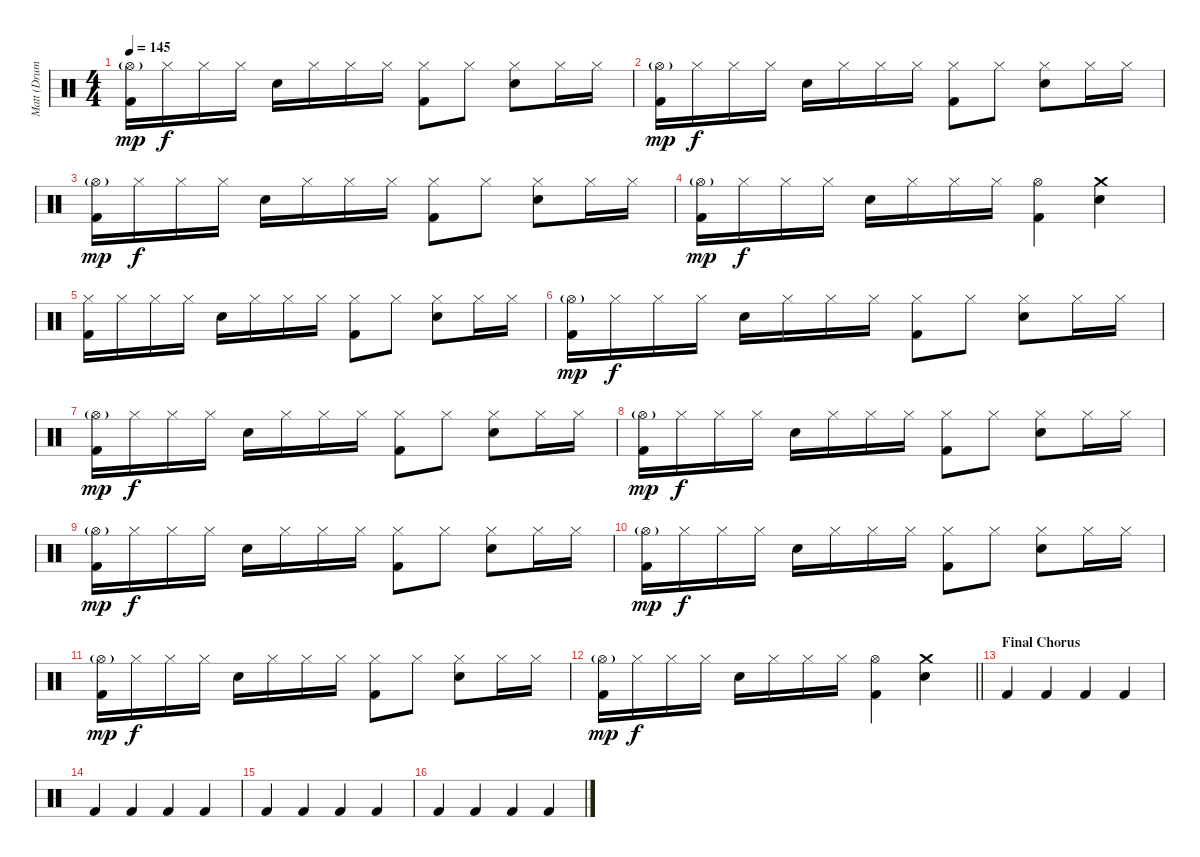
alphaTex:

\track ("Matt (Drums)" "Matt (Drum") {instrument percussion}
\staff {score}
\articulation defaults
\ts (4 4)
\tempo 145
\clef neutral
\ks c
("Hi-Hat (open)"{g} "Kick (hit) 2").16{dy mp} "Hi-Hat (closed)".16{dy f} "Hi-Hat (closed)".16 "Hi-Hat (closed)".16 "Electric Snare (hit)".16 "Hi-Hat (closed)".16 "Hi-Hat (closed)".16 "Hi-Hat (closed)".16 ("Hi-Hat (closed)" "Kick (hit) 2").8 "Hi-Hat (closed)".8 ("Hi-Hat (closed)" "Electric Snare (hit)").8 "Hi-Hat (closed)".16 "Hi-Hat (closed)".16 |
("Hi-Hat (open)"{g} "Kick (hit) 2").16{dy mp} "Hi-Hat (closed)".16{dy f} "Hi-Hat (closed)".16 "Hi-Hat (closed)".16 "Electric Snare (hit)".16 "Hi-Hat (closed)".16 "Hi-Hat (closed)".16 "Hi-Hat (closed)".16 ("Hi-Hat (closed)" "Kick (hit) 2").8 "Hi-Hat (closed)".8 ("Hi-Hat (closed)" "Electric Snare (hit)").8 "Hi-Hat (closed)".16 "Hi-Hat (closed)".16 |
("Hi-Hat (open)"{g} "Kick (hit) 2").16{dy mp} "Hi-Hat (closed)".16{dy f} "Hi-Hat (closed)".16 "Hi-Hat (closed)".16 "Electric Snare (hit)".16 "Hi-Hat (closed)".16 "Hi-Hat (closed)".16 "Hi-Hat (closed)".16 ("Hi-Hat (closed)" "Kick (hit) 2").8 "Hi-Hat (closed)".8 ("Hi-Hat (closed)" "Electric Snare (hit)").8 "Hi-Hat (closed)".16 "Hi-Hat (closed)".16 |
("Hi-Hat (open)"{g} "Kick (hit) 2").16{dy mp} "Hi-Hat (closed)".16{dy f} "Hi-Hat (closed)".16 "Hi-Hat (closed)".16 "Electric Snare (hit)".16 "Hi-Hat (closed)".16 "Hi-Hat (closed)".16 "Hi-Hat (closed)".16 ("Hi-Hat (open)" "Kick (hit) 2").4 ("Crash medium (hit)" "Electric Snare (hit)").4 |
("Hi-Hat (closed)" "Kick (hit) 2").16 "Hi-Hat (closed)".16 "Hi-Hat (closed)".16 "Hi-Hat (closed)".16 "Electric Snare (hit)".16 "Hi-Hat (closed)".16 "Hi-Hat (closed)".16 "Hi-Hat (closed)".16 ("Hi-Hat (closed)" "Kick (hit) 2").8 "Hi-Hat (closed)".8 ("Hi-Hat (closed)" "Electric Snare (hit)").8 "Hi-Hat (closed)".16 "Hi-Hat (closed)".16 |
("Hi-Hat (open)"{g} "Kick (hit) 2").16{dy mp} "Hi-Hat (closed)".16{dy f} "Hi-Hat (closed)".16 "Hi-Hat (closed)".16 "Electric Snare (hit)".16 "Hi-Hat (closed)".16 "Hi-Hat (closed)".16 "Hi-Hat (closed)".16 ("Hi-Hat (closed)" "Kick (hit) 2").8 "Hi-Hat (closed)".8 ("Hi-Hat (closed)" "Electric Snare (hit)").8 "Hi-Hat (closed)".16 "Hi-Hat (closed)".16 |
("Hi-Hat (open)"{g} "Kick (hit) 2").16{dy mp} "Hi-Hat (closed)".16{dy f} "Hi-Hat (closed)".16 "Hi-Hat (closed)".16 "Electric Snare (hit)".16 "Hi-Hat (closed)".16 "Hi-Hat (closed)".16 "Hi-Hat (closed)".16 ("Hi-Hat (closed)" "Kick (hit) 2").8 "Hi-Hat (closed)".8 ("Hi-Hat (closed)" "Electric Snare (hit)").8 "Hi-Hat (closed)".16 "Hi-Hat (closed)".16 |
("Hi-Hat (open)"{g} "Kick (hit) 2").16{dy mp} "Hi-Hat (closed)".16{dy f} "Hi-Hat (closed)".16 "Hi-Hat (closed)".16 "Electric Snare (hit)".16 "Hi-Hat (closed)".16 "Hi-Hat (closed)".16 "Hi-Hat (closed)".16 ("Hi-Hat (closed)" "Kick (hit) 2").8 "Hi-Hat (closed)".8 ("Hi-Hat (closed)" "Electric Snare (hit)").8 "Hi-Hat (closed)".16 "Hi-Hat (closed)".16 |
("Hi-Hat (open)"{g} "Kick (hit) 2").16{dy mp} "Hi-Hat (closed)".16{dy f} "Hi-Hat (closed)".16 "Hi-Hat (closed)".16 "Electric Snare (hit)".16 "Hi-Hat (closed)".16 "Hi-Hat (closed)".16 "Hi-Hat (closed)".16 ("Hi-Hat (closed)" "Kick (hit) 2").8 "Hi-Hat (closed)".8 ("Hi-Hat (closed)" "Electric Snare (hit)").8 "Hi-Hat (closed)".16 "Hi-Hat (closed)".16 |
("Hi-Hat (open)"{g} "Kick (hit) 2").16{dy mp} "Hi-Hat (closed)".16{dy f} "Hi-Hat (closed)".16 "Hi-Hat (closed)".16 "Electric Snare (hit)".16 "Hi-Hat (closed)".16 "Hi-Hat (closed)".16 "Hi-Hat (closed)".16 ("Hi-Hat (closed)" "Kick (hit) 2").8 "Hi-Hat (closed)".8 ("Hi-Hat (closed)" "Electric Snare (hit)").8 "Hi-Hat (closed)".16 "Hi-Hat (closed)".16 |
("Hi-Hat (open)"{g} "Kick (hit) 2").16{dy mp} "Hi-Hat (closed)".16{dy f} "Hi-Hat (closed)".16 "Hi-Hat (closed)".16 "Electric Snare (hit)".16 "Hi-Hat (closed)".16 "Hi-Hat (closed)".16 "Hi-Hat (closed)".16 ("Hi-Hat (closed)" "Kick (hit) 2").8 "Hi-Hat (closed)".8 ("Hi-Hat (closed)" "Electric Snare (hit)").8 "Hi-Hat (closed)".16 "Hi-Hat (closed)".16 |
\barLineRight lightlight
("Hi-Hat (open)"{g} "Kick (hit) 2").16{dy mp} "Hi-Hat (closed)".16{dy f} "Hi-Hat (closed)".16 "Hi-Hat (closed)".16 "Electric Snare (hit)".16 "Hi-Hat (closed)".16 "Hi-Hat (closed)".16 "Hi-Hat (closed)".16 ("Hi-Hat (open)" "Kick (hit) 2").4 ("Crash medium (hit)" "Electric Snare (hit)").4 |
\section ("" "Final Chorus")
"Kick (hit) 2".4 "Kick (hit) 2".4 "Kick (hit) 2".4 "Kick (hit) 2".4 |
"Kick (hit) 2".4 "Kick (hit) 2".4 "Kick (hit) 2".4 "Kick (hit) 2".4 |
"Kick (hit) 2".4 "Kick (hit) 2".4 "Kick (hit) 2".4 "Kick (hit) 2".4 |
"Kick (hit) 2".4 "Kick (hit) 2".4 "Kick (hit) 2".4 "Kick (hit) 2".4
